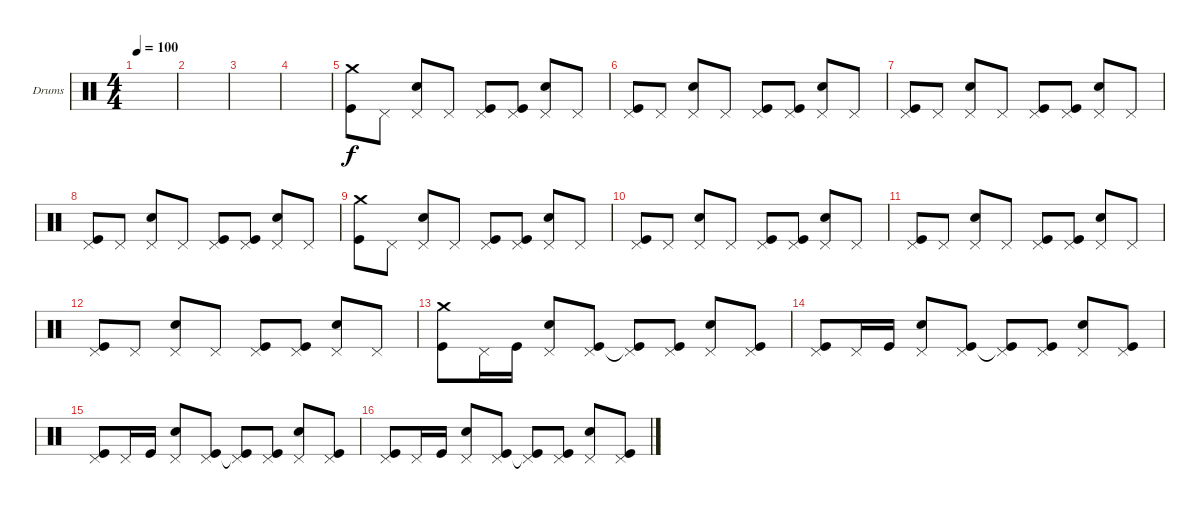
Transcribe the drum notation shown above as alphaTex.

\defaultSystemsLayout 4
\bracketExtendMode groupsimilarinstruments
\firstSystemTrackNameOrientation horizontal
\otherSystemsTrackNameOrientation horizontal
\track ("Drumkit" "Drums") {instrument percussion}
\staff {score}
\articulation defaults
\ts (4 4)
\tempo 100
\clef neutral
\ks c
|
|
|
|
("Crash medium (hit)" "Kick (hit)").8 "Pedal Hi-Hat (hit)".8 ("Pedal Hi-Hat (hit)" "Snare (hit) 2").8 "Pedal Hi-Hat (hit)".8 ("Pedal Hi-Hat (hit)" "Kick (hit)").8 ("Pedal Hi-Hat (hit)" "Kick (hit)").8 ("Pedal Hi-Hat (hit)" "Snare (hit) 2").8 "Pedal Hi-Hat (hit)".8 |
("Pedal Hi-Hat (hit)" "Kick (hit)").8 "Pedal Hi-Hat (hit)".8 ("Pedal Hi-Hat (hit)" "Snare (hit) 2").8 "Pedal Hi-Hat (hit)".8 ("Pedal Hi-Hat (hit)" "Kick (hit)").8 ("Pedal Hi-Hat (hit)" "Kick (hit)").8 ("Pedal Hi-Hat (hit)" "Snare (hit) 2").8 "Pedal Hi-Hat (hit)".8 |
("Pedal Hi-Hat (hit)" "Kick (hit)").8 "Pedal Hi-Hat (hit)".8 ("Pedal Hi-Hat (hit)" "Snare (hit) 2").8 "Pedal Hi-Hat (hit)".8 ("Pedal Hi-Hat (hit)" "Kick (hit)").8 ("Pedal Hi-Hat (hit)" "Kick (hit)").8 ("Pedal Hi-Hat (hit)" "Snare (hit) 2").8 "Pedal Hi-Hat (hit)".8 |
("Pedal Hi-Hat (hit)" "Kick (hit)").8 "Pedal Hi-Hat (hit)".8 ("Pedal Hi-Hat (hit)" "Snare (hit) 2").8 "Pedal Hi-Hat (hit)".8 ("Pedal Hi-Hat (hit)" "Kick (hit)").8 ("Pedal Hi-Hat (hit)" "Kick (hit)").8 ("Pedal Hi-Hat (hit)" "Snare (hit) 2").8 "Pedal Hi-Hat (hit)".8 |
("Crash medium (hit)" "Kick (hit)").8 "Pedal Hi-Hat (hit)".8 ("Pedal Hi-Hat (hit)" "Snare (hit) 2").8 "Pedal Hi-Hat (hit)".8 ("Pedal Hi-Hat (hit)" "Kick (hit)").8 ("Pedal Hi-Hat (hit)" "Kick (hit)").8 ("Pedal Hi-Hat (hit)" "Snare (hit) 2").8 "Pedal Hi-Hat (hit)".8 |
("Pedal Hi-Hat (hit)" "Kick (hit)").8 "Pedal Hi-Hat (hit)".8 ("Pedal Hi-Hat (hit)" "Snare (hit) 2").8 "Pedal Hi-Hat (hit)".8 ("Pedal Hi-Hat (hit)" "Kick (hit)").8 ("Pedal Hi-Hat (hit)" "Kick (hit)").8 ("Pedal Hi-Hat (hit)" "Snare (hit) 2").8 "Pedal Hi-Hat (hit)".8 |
("Pedal Hi-Hat (hit)" "Kick (hit)").8 "Pedal Hi-Hat (hit)".8 ("Pedal Hi-Hat (hit)" "Snare (hit) 2").8 "Pedal Hi-Hat (hit)".8 ("Pedal Hi-Hat (hit)" "Kick (hit)").8 ("Pedal Hi-Hat (hit)" "Kick (hit)").8 ("Pedal Hi-Hat (hit)" "Snare (hit) 2").8 "Pedal Hi-Hat (hit)".8 |
("Pedal Hi-Hat (hit)" "Kick (hit)").8 "Pedal Hi-Hat (hit)".8 ("Pedal Hi-Hat (hit)" "Snare (hit) 2").8 "Pedal Hi-Hat (hit)".8 ("Pedal Hi-Hat (hit)" "Kick (hit)").8 ("Pedal Hi-Hat (hit)" "Kick (hit)").8 ("Pedal Hi-Hat (hit)" "Snare (hit) 2").8 "Pedal Hi-Hat (hit)".8 |
("Crash medium (hit)" "Kick (hit)").8 "Pedal Hi-Hat (hit)".16 "Kick (hit)".16 ("Pedal Hi-Hat (hit)" "Snare (hit) 2").8 ("Pedal Hi-Hat (hit)" "Kick (hit)").8 ("Pedal Hi-Hat (hit)" "Kick (hit)"{t}).8 ("Pedal Hi-Hat (hit)" "Kick (hit)").8 ("Pedal Hi-Hat (hit)" "Snare (hit) 2").8 ("Pedal Hi-Hat (hit)" "Kick (hit)").8 |
("Pedal Hi-Hat (hit)" "Kick (hit)").8 "Pedal Hi-Hat (hit)".16 "Kick (hit)".16 ("Pedal Hi-Hat (hit)" "Snare (hit) 2").8 ("Pedal Hi-Hat (hit)" "Kick (hit)").8 ("Pedal Hi-Hat (hit)" "Kick (hit)"{t}).8 ("Pedal Hi-Hat (hit)" "Kick (hit)").8 ("Pedal Hi-Hat (hit)" "Snare (hit) 2").8 ("Pedal Hi-Hat (hit)" "Kick (hit)").8 |
("Pedal Hi-Hat (hit)" "Kick (hit)").8 "Pedal Hi-Hat (hit)".16 "Kick (hit)".16 ("Pedal Hi-Hat (hit)" "Snare (hit) 2").8 ("Pedal Hi-Hat (hit)" "Kick (hit)").8 ("Pedal Hi-Hat (hit)" "Kick (hit)"{t}).8 ("Pedal Hi-Hat (hit)" "Kick (hit)").8 ("Pedal Hi-Hat (hit)" "Snare (hit) 2").8 ("Pedal Hi-Hat (hit)" "Kick (hit)").8 |
("Pedal Hi-Hat (hit)" "Kick (hit)").8 "Pedal Hi-Hat (hit)".16 "Kick (hit)".16 ("Pedal Hi-Hat (hit)" "Snare (hit) 2").8 ("Pedal Hi-Hat (hit)" "Kick (hit)").8 ("Pedal Hi-Hat (hit)" "Kick (hit)"{t}).8 ("Pedal Hi-Hat (hit)" "Kick (hit)").8 ("Pedal Hi-Hat (hit)" "Snare (hit) 2").8 ("Pedal Hi-Hat (hit)" "Kick (hit)").8
